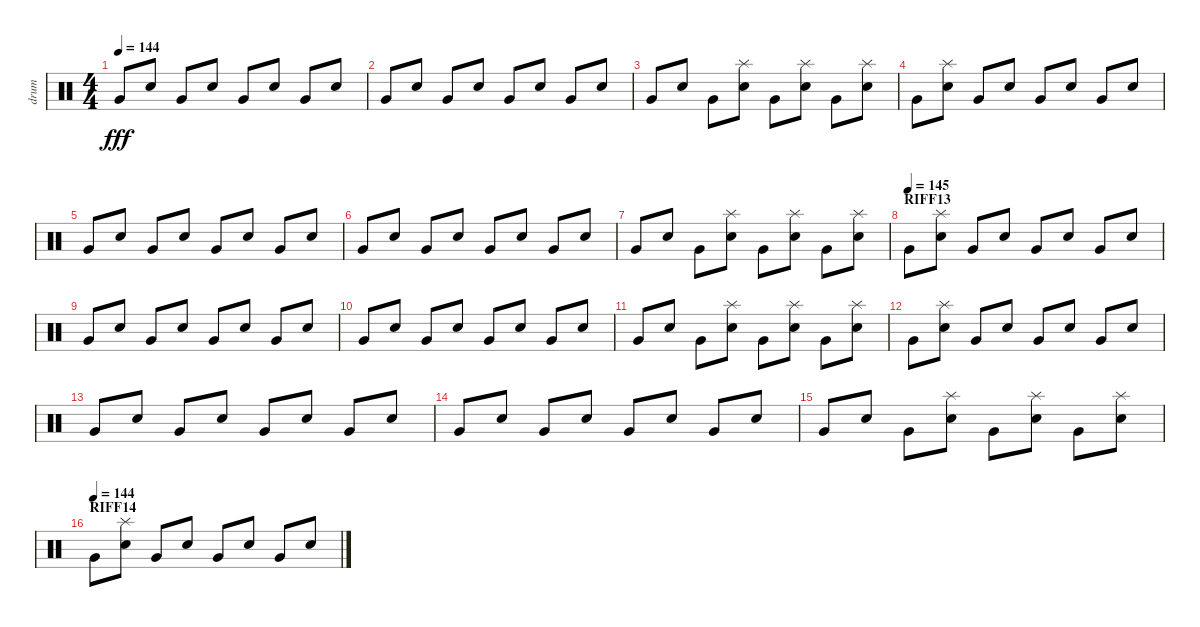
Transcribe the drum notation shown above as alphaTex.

\track ("drum" "drum") {instrument percussion}
\staff {score}
\articulation defaults
\ts (4 4)
\tempo 144
\clef neutral
\ks c "Very Low Tom (hit)".8{dy fff} "Electric Snare (hit)".8 "Very Low Tom (hit)".8 "Electric Snare (hit)".8 "Very Low Tom (hit)".8 "Electric Snare (hit)".8 "Very Low Tom (hit)".8 "Electric Snare (hit)".8
|
"Very Low Tom (hit)".8 "Electric Snare (hit)".8 "Very Low Tom (hit)".8 "Electric Snare (hit)".8 "Very Low Tom (hit)".8 "Electric Snare (hit)".8 "Very Low Tom (hit)".8 "Electric Snare (hit)".8 |
"Very Low Tom (hit)".8 "Electric Snare (hit)".8 "Very Low Tom (hit)".8 ("Electric Snare (hit)" "Splash (hit)").8 "Very Low Tom (hit)".8 ("Electric Snare (hit)" "Splash (hit)").8 "Very Low Tom (hit)".8 ("Electric Snare (hit)" "Splash (hit)").8 |
"Very Low Tom (hit)".8 ("Electric Snare (hit)" "Splash (hit)").8 "Very Low Tom (hit)".8 "Electric Snare (hit)".8 "Very Low Tom (hit)".8 "Electric Snare (hit)".8 "Very Low Tom (hit)".8 "Electric Snare (hit)".8 |
"Very Low Tom (hit)".8 "Electric Snare (hit)".8 "Very Low Tom (hit)".8 "Electric Snare (hit)".8 "Very Low Tom (hit)".8 "Electric Snare (hit)".8 "Very Low Tom (hit)".8 "Electric Snare (hit)".8 |
"Very Low Tom (hit)".8 "Electric Snare (hit)".8 "Very Low Tom (hit)".8 "Electric Snare (hit)".8 "Very Low Tom (hit)".8 "Electric Snare (hit)".8 "Very Low Tom (hit)".8 "Electric Snare (hit)".8 |
"Very Low Tom (hit)".8 "Electric Snare (hit)".8 "Very Low Tom (hit)".8 ("Electric Snare (hit)" "Splash (hit)").8 "Very Low Tom (hit)".8 ("Electric Snare (hit)" "Splash (hit)").8 "Very Low Tom (hit)".8 ("Electric Snare (hit)" "Splash (hit)").8 |
\section ("" "RIFF13")
\tempo (145)
"Very Low Tom (hit)".8 ("Electric Snare (hit)" "Splash (hit)").8 "Very Low Tom (hit)".8 "Electric Snare (hit)".8 "Very Low Tom (hit)".8 "Electric Snare (hit)".8 "Very Low Tom (hit)".8 "Electric Snare (hit)".8 |
"Very Low Tom (hit)".8 "Electric Snare (hit)".8 "Very Low Tom (hit)".8 "Electric Snare (hit)".8 "Very Low Tom (hit)".8 "Electric Snare (hit)".8 "Very Low Tom (hit)".8 "Electric Snare (hit)".8 |
"Very Low Tom (hit)".8 "Electric Snare (hit)".8 "Very Low Tom (hit)".8 "Electric Snare (hit)".8 "Very Low Tom (hit)".8 "Electric Snare (hit)".8 "Very Low Tom (hit)".8 "Electric Snare (hit)".8 |
"Very Low Tom (hit)".8 "Electric Snare (hit)".8 "Very Low Tom (hit)".8 ("Electric Snare (hit)" "Splash (hit)").8 "Very Low Tom (hit)".8 ("Electric Snare (hit)" "Splash (hit)").8 "Very Low Tom (hit)".8 ("Electric Snare (hit)" "Splash (hit)").8 |
"Very Low Tom (hit)".8 ("Electric Snare (hit)" "Splash (hit)").8 "Very Low Tom (hit)".8 "Electric Snare (hit)".8 "Very Low Tom (hit)".8 "Electric Snare (hit)".8 "Very Low Tom (hit)".8 "Electric Snare (hit)".8 |
"Very Low Tom (hit)".8 "Electric Snare (hit)".8 "Very Low Tom (hit)".8 "Electric Snare (hit)".8 "Very Low Tom (hit)".8 "Electric Snare (hit)".8 "Very Low Tom (hit)".8 "Electric Snare (hit)".8 |
"Very Low Tom (hit)".8 "Electric Snare (hit)".8 "Very Low Tom (hit)".8 "Electric Snare (hit)".8 "Very Low Tom (hit)".8 "Electric Snare (hit)".8 "Very Low Tom (hit)".8 "Electric Snare (hit)".8 |
"Very Low Tom (hit)".8 "Electric Snare (hit)".8 "Very Low Tom (hit)".8 ("Electric Snare (hit)" "Splash (hit)").8 "Very Low Tom (hit)".8 ("Electric Snare (hit)" "Splash (hit)").8 "Very Low Tom (hit)".8 ("Electric Snare (hit)" "Splash (hit)").8 |
\section ("" "RIFF14")
\tempo (144)
"Very Low Tom (hit)".8 ("Electric Snare (hit)" "Splash (hit)").8 "Very Low Tom (hit)".8 "Electric Snare (hit)".8 "Very Low Tom (hit)".8 "Electric Snare (hit)".8 "Very Low Tom (hit)".8 "Electric Snare (hit)".8
